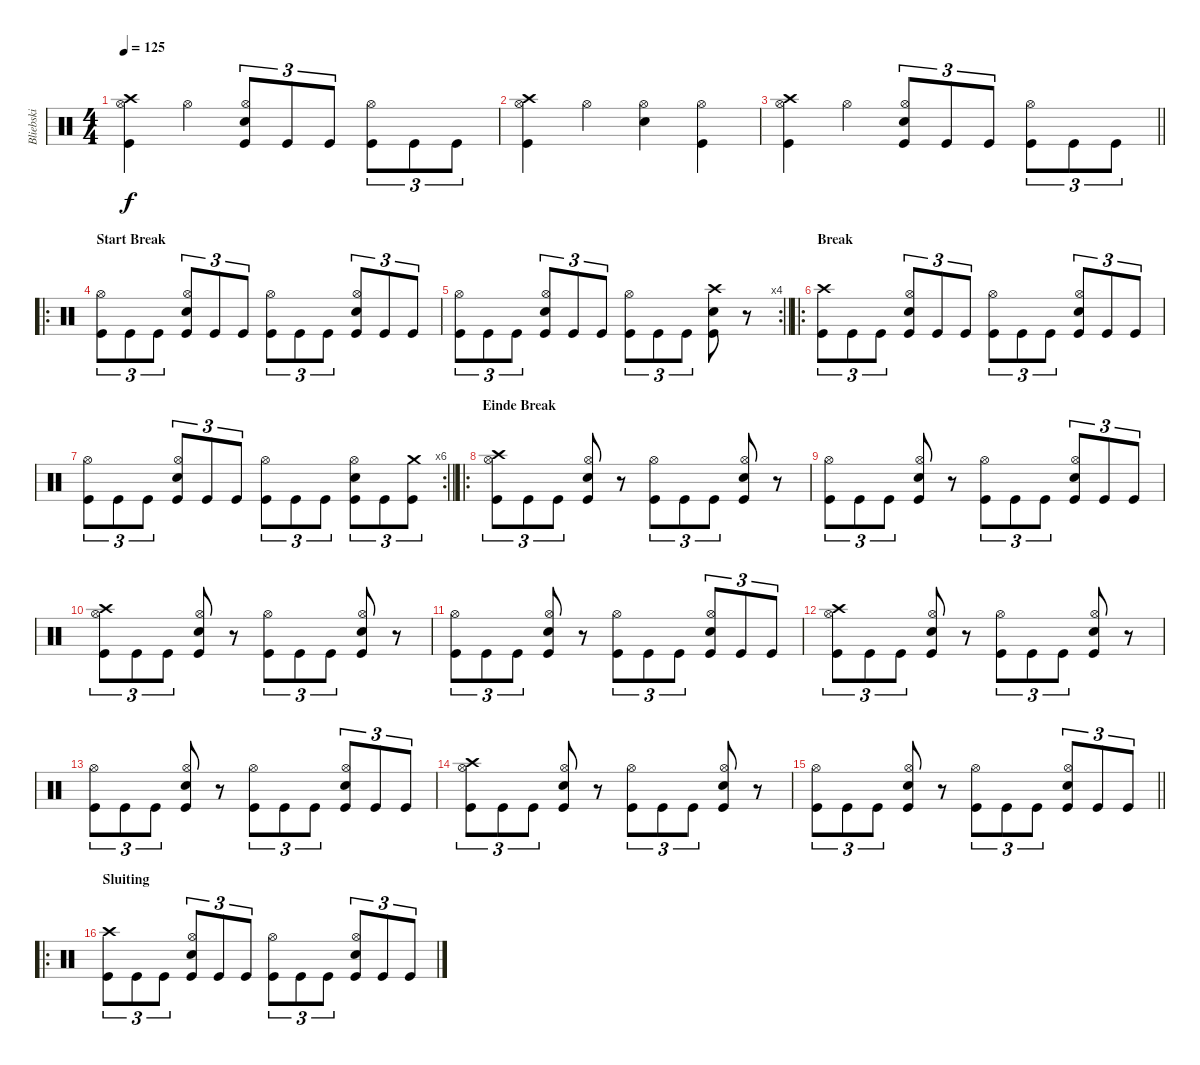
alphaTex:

\track ("Bliebski" "Bliebski") {instrument percussion}
\staff {score}
\articulation defaults
\ts (4 4)
\tempo 125
\clef neutral
\ks c
("Crash high (hit)" "Kick (hit)" "Hi-Hat (open)").4{dy f} "Hi-Hat (open)".4 ("Kick (hit)" "Hi-Hat (open)" "Snare (hit) 2").8{tu (3 2)} "Kick (hit)".8{tu (3 2)} "Kick (hit)".8{tu (3 2)} ("Kick (hit)" "Hi-Hat (open)").8{tu (3 2)} "Kick (hit)".8{tu (3 2)} "Kick (hit)".8{tu (3 2)} |
("Crash high (hit)" "Kick (hit)" "Hi-Hat (open)").4 "Hi-Hat (open)".4 ("Hi-Hat (open)" "Snare (hit) 2").4 ("Kick (hit)" "Hi-Hat (open)").4 |
\barLineRight lightlight
("Crash high (hit)" "Kick (hit)" "Hi-Hat (open)").4 "Hi-Hat (open)".4 ("Kick (hit)" "Hi-Hat (open)" "Snare (hit) 2").8{tu (3 2)} "Kick (hit)".8{tu (3 2)} "Kick (hit)".8{tu (3 2)} ("Kick (hit)" "Hi-Hat (open)").8{tu (3 2)} "Kick (hit)".8{tu (3 2)} "Kick (hit)".8{tu (3 2)} |
\ro
\section ("" "Start Break")
("Kick (hit)" "Hi-Hat (open)").8{tu (3 2)} "Kick (hit)".8{tu (3 2)} "Kick (hit)".8{tu (3 2)} ("Kick (hit)" "Hi-Hat (open)" "Snare (hit) 2").8{tu (3 2)} "Kick (hit)".8{tu (3 2)} "Kick (hit)".8{tu (3 2)} ("Kick (hit)" "Hi-Hat (open)").8{tu (3 2)} "Kick (hit)".8{tu (3 2)} "Kick (hit)".8{tu (3 2)} ("Kick (hit)" "Hi-Hat (open)" "Snare (hit) 2").8{tu (3 2)} "Kick (hit)".8{tu (3 2)} "Kick (hit)".8{tu (3 2)} |
\rc 4
\barLineRight lightlight
("Kick (hit)" "Hi-Hat (open)").8{tu (3 2)} "Kick (hit)".8{tu (3 2)} "Kick (hit)".8{tu (3 2)} ("Kick (hit)" "Hi-Hat (open)" "Snare (hit) 2").8{tu (3 2)} "Kick (hit)".8{tu (3 2)} "Kick (hit)".8{tu (3 2)} ("Kick (hit)" "Hi-Hat (open)").8{tu (3 2)} "Kick (hit)".8{tu (3 2)} "Kick (hit)".8{tu (3 2)} ("Crash high (hit)" "Kick (hit)" "Snare (hit) 2").8 r.8 |
\ro
\section ("" "Break")
("Crash high (hit)" "Kick (hit)").8{tu (3 2)} "Kick (hit)".8{tu (3 2)} "Kick (hit)".8{tu (3 2)} ("Snare (hit) 2" "Kick (hit)" "Hi-Hat (open)").8{tu (3 2)} "Kick (hit)".8{tu (3 2)} "Kick (hit)".8{tu (3 2)} ("Kick (hit)" "Hi-Hat (open)").8{tu (3 2)} "Kick (hit)".8{tu (3 2)} "Kick (hit)".8{tu (3 2)} ("Snare (hit) 2" "Kick (hit)" "Hi-Hat (open)").8{tu (3 2)} "Kick (hit)".8{tu (3 2)} "Kick (hit)".8{tu (3 2)} |
\rc 6
\barLineRight lightlight
("Kick (hit)" "Hi-Hat (open)").8{tu (3 2)} "Kick (hit)".8{tu (3 2)} "Kick (hit)".8{tu (3 2)} ("Snare (hit) 2" "Kick (hit)" "Hi-Hat (open)").8{tu (3 2)} "Kick (hit)".8{tu (3 2)} "Kick (hit)".8{tu (3 2)} ("Kick (hit)" "Hi-Hat (open)").8{tu (3 2)} "Kick (hit)".8{tu (3 2)} "Kick (hit)".8{tu (3 2)} ("Snare (hit) 2" "Kick (hit)" "Hi-Hat (open)").8{tu (3 2)} "Kick (hit)".8{tu (3 2)} ("Kick (hit)" "Crash medium (hit)").8{tu (3 2)} |
\ro
\section ("" "Einde Break")
("Crash high (hit)" "Kick (hit)" "Hi-Hat (open)").8{tu (3 2)} "Kick (hit)".8{tu (3 2)} "Kick (hit)".8{tu (3 2)} ("Kick (hit)" "Hi-Hat (open)" "Snare (hit) 2").8 r.8 ("Kick (hit)" "Hi-Hat (open)").8{tu (3 2)} "Kick (hit)".8{tu (3 2)} "Kick (hit)".8{tu (3 2)} ("Kick (hit)" "Hi-Hat (open)" "Snare (hit) 2").8 r.8 |
("Kick (hit)" "Hi-Hat (open)").8{tu (3 2)} "Kick (hit)".8{tu (3 2)} "Kick (hit)".8{tu (3 2)} ("Kick (hit)" "Hi-Hat (open)" "Snare (hit) 2").8 r.8 ("Kick (hit)" "Hi-Hat (open)").8{tu (3 2)} "Kick (hit)".8{tu (3 2)} "Kick (hit)".8{tu (3 2)} ("Kick (hit)" "Hi-Hat (open)" "Snare (hit) 2").8{tu (3 2)} "Kick (hit)".8{tu (3 2)} "Kick (hit)".8{tu (3 2)} |
("Crash high (hit)" "Kick (hit)" "Hi-Hat (open)").8{tu (3 2)} "Kick (hit)".8{tu (3 2)} "Kick (hit)".8{tu (3 2)} ("Kick (hit)" "Hi-Hat (open)" "Snare (hit) 2").8 r.8 ("Kick (hit)" "Hi-Hat (open)").8{tu (3 2)} "Kick (hit)".8{tu (3 2)} "Kick (hit)".8{tu (3 2)} ("Kick (hit)" "Hi-Hat (open)" "Snare (hit) 2").8 r.8 |
("Kick (hit)" "Hi-Hat (open)").8{tu (3 2)} "Kick (hit)".8{tu (3 2)} "Kick (hit)".8{tu (3 2)} ("Kick (hit)" "Hi-Hat (open)" "Snare (hit) 2").8 r.8 ("Kick (hit)" "Hi-Hat (open)").8{tu (3 2)} "Kick (hit)".8{tu (3 2)} "Kick (hit)".8{tu (3 2)} ("Kick (hit)" "Hi-Hat (open)" "Snare (hit) 2").8{tu (3 2)} "Kick (hit)".8{tu (3 2)} "Kick (hit)".8{tu (3 2)} |
("Crash high (hit)" "Kick (hit)" "Hi-Hat (open)").8{tu (3 2)} "Kick (hit)".8{tu (3 2)} "Kick (hit)".8{tu (3 2)} ("Kick (hit)" "Hi-Hat (open)" "Snare (hit) 2").8 r.8 ("Kick (hit)" "Hi-Hat (open)").8{tu (3 2)} "Kick (hit)".8{tu (3 2)} "Kick (hit)".8{tu (3 2)} ("Kick (hit)" "Hi-Hat (open)" "Snare (hit) 2").8 r.8 |
("Kick (hit)" "Hi-Hat (open)").8{tu (3 2)} "Kick (hit)".8{tu (3 2)} "Kick (hit)".8{tu (3 2)} ("Kick (hit)" "Hi-Hat (open)" "Snare (hit) 2").8 r.8 ("Kick (hit)" "Hi-Hat (open)").8{tu (3 2)} "Kick (hit)".8{tu (3 2)} "Kick (hit)".8{tu (3 2)} ("Kick (hit)" "Hi-Hat (open)" "Snare (hit) 2").8{tu (3 2)} "Kick (hit)".8{tu (3 2)} "Kick (hit)".8{tu (3 2)} |
("Crash high (hit)" "Kick (hit)" "Hi-Hat (open)").8{tu (3 2)} "Kick (hit)".8{tu (3 2)} "Kick (hit)".8{tu (3 2)} ("Kick (hit)" "Hi-Hat (open)" "Snare (hit) 2").8 r.8 ("Kick (hit)" "Hi-Hat (open)").8{tu (3 2)} "Kick (hit)".8{tu (3 2)} "Kick (hit)".8{tu (3 2)} ("Kick (hit)" "Hi-Hat (open)" "Snare (hit) 2").8 r.8 |
\barLineRight lightlight
("Kick (hit)" "Hi-Hat (open)").8{tu (3 2)} "Kick (hit)".8{tu (3 2)} "Kick (hit)".8{tu (3 2)} ("Kick (hit)" "Hi-Hat (open)" "Snare (hit) 2").8 r.8 ("Kick (hit)" "Hi-Hat (open)").8{tu (3 2)} "Kick (hit)".8{tu (3 2)} "Kick (hit)".8{tu (3 2)} ("Kick (hit)" "Hi-Hat (open)" "Snare (hit) 2").8{tu (3 2)} "Kick (hit)".8{tu (3 2)} "Kick (hit)".8{tu (3 2)} |
\ro
\section ("" "Sluiting")
("Crash high (hit)" "Kick (hit)").8{tu (3 2)} "Kick (hit)".8{tu (3 2)} "Kick (hit)".8{tu (3 2)} ("Snare (hit) 2" "Kick (hit)" "Hi-Hat (open)").8{tu (3 2)} "Kick (hit)".8{tu (3 2)} "Kick (hit)".8{tu (3 2)} ("Kick (hit)" "Hi-Hat (open)").8{tu (3 2)} "Kick (hit)".8{tu (3 2)} "Kick (hit)".8{tu (3 2)} ("Snare (hit) 2" "Kick (hit)" "Hi-Hat (open)").8{tu (3 2)} "Kick (hit)".8{tu (3 2)} "Kick (hit)".8{tu (3 2)}
